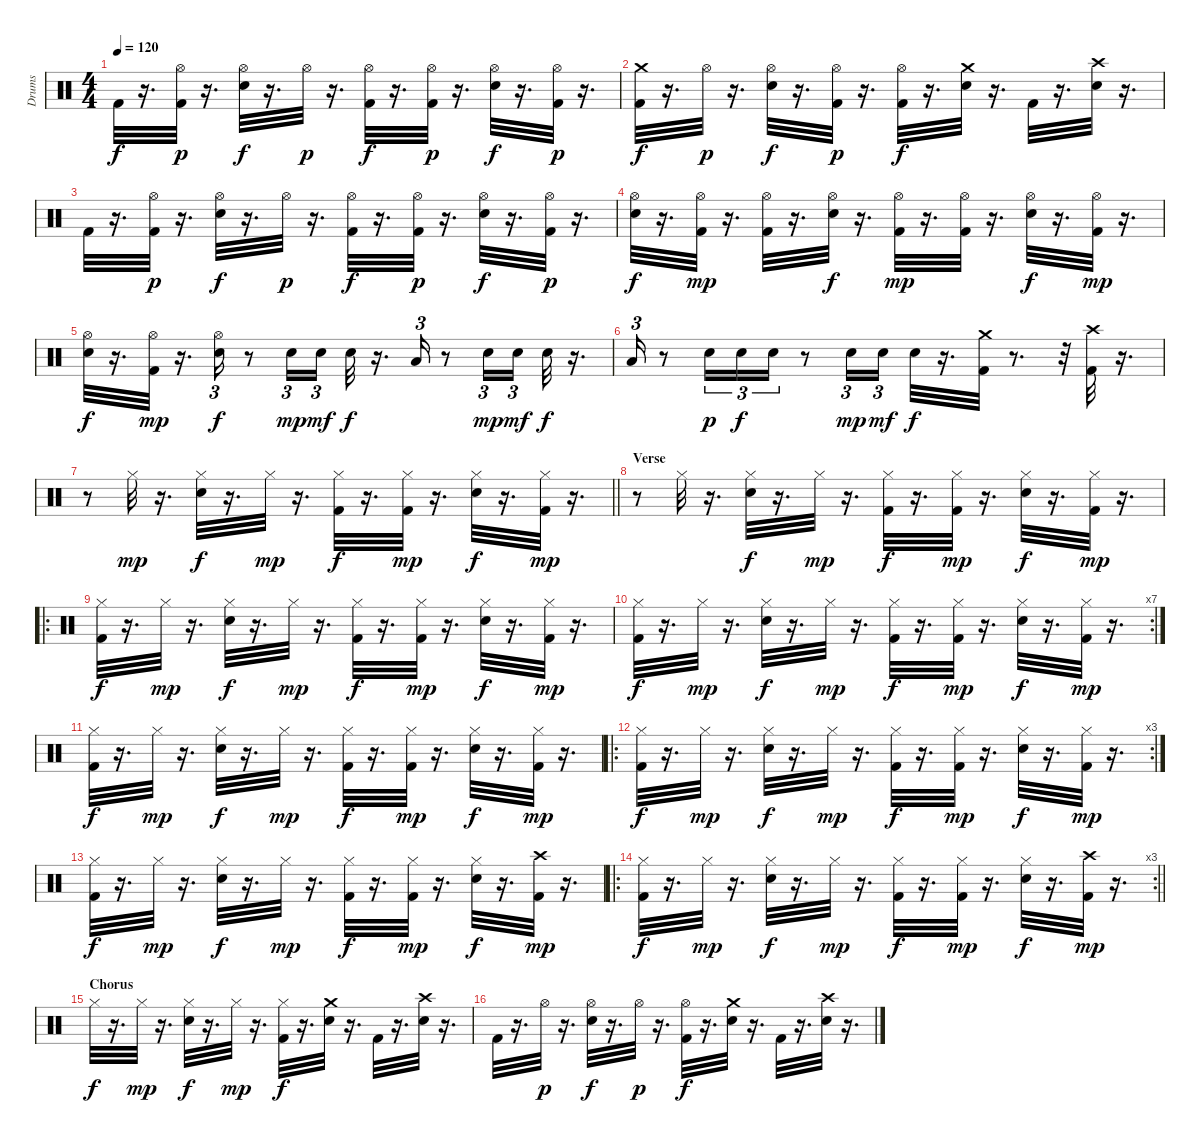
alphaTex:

\track ("Drums" "Drums") {instrument percussion}
\staff {score}
\articulation defaults
\ts (4 4)
\tempo 120
\clef neutral
\ks c "Kick (hit) 2".32{dy f}
r.16{d} ("Kick (hit) 2" "Hi-Hat (open)").32{dy p} r.16{d} ("Hi-Hat (open)" "Electric Snare (hit)").32{dy f} r.16{d} "Hi-Hat (open)".32{dy p} r.16{d} ("Hi-Hat (open)" "Kick (hit) 2").32{dy f} r.16{d} ("Hi-Hat (open)" "Kick (hit) 2").32{dy p} r.16{d} ("Hi-Hat (open)" "Electric Snare (hit)").32{dy f} r.16{d} ("Hi-Hat (open)" "Kick (hit) 2").32{dy p} r.16{d} |
("Crash medium (hit)" "Kick (hit) 2").32{dy f} r.16{d} "Hi-Hat (open)".32{dy p} r.16{d} ("Hi-Hat (open)" "Electric Snare (hit)").32{dy f} r.16{d} ("Kick (hit) 2" "Hi-Hat (open)").32{dy p} r.16{d} ("Hi-Hat (open)" "Kick (hit) 2").32{dy f} r.16{d} ("Crash medium (hit)" "Electric Snare (hit)").32 r.16{d} "Kick (hit) 2".32 r.16{d} ("Crash high (hit)" "Electric Snare (hit)").32 r.16{d} |
"Kick (hit) 2".32 r.16{d} ("Kick (hit) 2" "Hi-Hat (open)").32{dy p} r.16{d} ("Hi-Hat (open)" "Electric Snare (hit)").32{dy f} r.16{d} "Hi-Hat (open)".32{dy p} r.16{d} ("Hi-Hat (open)" "Kick (hit) 2").32{dy f} r.16{d} ("Hi-Hat (open)" "Kick (hit) 2").32{dy p} r.16{d} ("Hi-Hat (open)" "Electric Snare (hit)").32{dy f} r.16{d} ("Hi-Hat (open)" "Kick (hit) 2").32{dy p} r.16{d} |
("Hi-Hat (open)" "Electric Snare (hit)").32{dy f} r.16{d} ("Hi-Hat (open)" "Kick (hit) 2").32{dy mp} r.16{d} ("Hi-Hat (open)" "Kick (hit) 2").32 r.16{d} ("Hi-Hat (open)" "Electric Snare (hit)").32{dy f} r.16{d} ("Hi-Hat (open)" "Kick (hit) 2").32{dy mp} r.16{d} ("Hi-Hat (open)" "Kick (hit) 2").32 r.16{d} ("Hi-Hat (open)" "Electric Snare (hit)").32{dy f} r.16{d} ("Hi-Hat (open)" "Kick (hit) 2").32{dy mp} r.16{d} |
("Hi-Hat (open)" "Electric Snare (hit)").32{dy f} r.16{d} ("Hi-Hat (open)" "Kick (hit) 2").32{dy mp} r.16{d} ("Hi-Hat (open)" "Electric Snare (hit)").16{tu (3 2) dy f} r.8 "Electric Snare (hit)".16{tu (3 2) dy mp} "Electric Snare (hit)".16{tu (3 2) dy mf} "Electric Snare (hit)".32{dy f} r.16{d} "Low Tom (hit)".16{tu (3 2)} r.8 "Electric Snare (hit)".16{tu (3 2) dy mp} "Electric Snare (hit)".16{tu (3 2) dy mf beam splitsecondary} "Electric Snare (hit)".32{dy f} r.16{d} |
"Low Tom (hit)".16{tu (3 2)} r.8 "Electric Snare (hit)".16{tu (3 2) dy p} "Electric Snare (hit)".16{tu (3 2) dy f} "Electric Snare (hit)".16{tu (3 2)} r.8 "Electric Snare (hit)".16{tu (3 2) dy mp} "Electric Snare (hit)".16{tu (3 2) dy mf} "Electric Snare (hit)".32{dy f} r.16{d} ("Crash medium (hit)" "Kick (hit) 2").32 r.8{d} r.32 ("Crash high (hit)" "Kick (hit) 2").32 r.16{d} |
\barLineRight lightlight
r.8 "Hi-Hat (closed)".32{dy mp} r.16{d} ("Hi-Hat (closed)" "Electric Snare (hit)").32{dy f} r.16{d} "Hi-Hat (closed)".32{dy mp} r.16{d} ("Hi-Hat (closed)" "Kick (hit) 2").32{dy f} r.16{d} ("Hi-Hat (closed)" "Kick (hit) 2").32{dy mp} r.16{d} ("Hi-Hat (closed)" "Electric Snare (hit)").32{dy f} r.16{d} ("Hi-Hat (closed)" "Kick (hit) 2").32{dy mp} r.16{d} |
\section ("" "Verse")
r.8 "Hi-Hat (closed)".32 r.16{d} ("Hi-Hat (closed)" "Electric Snare (hit)").32{dy f} r.16{d} "Hi-Hat (closed)".32{dy mp} r.16{d} ("Hi-Hat (closed)" "Kick (hit) 2").32{dy f} r.16{d} ("Hi-Hat (closed)" "Kick (hit) 2").32{dy mp} r.16{d} ("Hi-Hat (closed)" "Electric Snare (hit)").32{dy f} r.16{d} ("Hi-Hat (closed)" "Kick (hit) 2").32{dy mp} r.16{d} |
\ro
("Hi-Hat (closed)" "Kick (hit) 2").32{dy f} r.16{d} "Hi-Hat (closed)".32{dy mp} r.16{d} ("Hi-Hat (closed)" "Electric Snare (hit)").32{dy f} r.16{d} "Hi-Hat (closed)".32{dy mp} r.16{d} ("Hi-Hat (closed)" "Kick (hit) 2").32{dy f} r.16{d} ("Hi-Hat (closed)" "Kick (hit) 2").32{dy mp} r.16{d} ("Hi-Hat (closed)" "Electric Snare (hit)").32{dy f} r.16{d} ("Hi-Hat (closed)" "Kick (hit) 2").32{dy mp} r.16{d} |
\rc 7
("Hi-Hat (closed)" "Kick (hit) 2").32{dy f} r.16{d} "Hi-Hat (closed)".32{dy mp} r.16{d} ("Hi-Hat (closed)" "Electric Snare (hit)").32{dy f} r.16{d} "Hi-Hat (closed)".32{dy mp} r.16{d} ("Hi-Hat (closed)" "Kick (hit) 2").32{dy f} r.16{d} ("Hi-Hat (closed)" "Kick (hit) 2").32{dy mp} r.16{d} ("Hi-Hat (closed)" "Electric Snare (hit)").32{dy f} r.16{d} ("Hi-Hat (closed)" "Kick (hit) 2").32{dy mp} r.16{d} |
("Hi-Hat (closed)" "Kick (hit) 2").32{dy f} r.16{d} "Hi-Hat (closed)".32{dy mp} r.16{d} ("Hi-Hat (closed)" "Electric Snare (hit)").32{dy f} r.16{d} "Hi-Hat (closed)".32{dy mp} r.16{d} ("Hi-Hat (closed)" "Kick (hit) 2").32{dy f} r.16{d} ("Hi-Hat (closed)" "Kick (hit) 2").32{dy mp} r.16{d} ("Hi-Hat (closed)" "Electric Snare (hit)").32{dy f} r.16{d} ("Hi-Hat (closed)" "Kick (hit) 2").32{dy mp} r.16{d} |
\ro
\rc 3
("Hi-Hat (closed)" "Kick (hit) 2").32{dy f} r.16{d} "Hi-Hat (closed)".32{dy mp} r.16{d} ("Hi-Hat (closed)" "Electric Snare (hit)").32{dy f} r.16{d} "Hi-Hat (closed)".32{dy mp} r.16{d} ("Hi-Hat (closed)" "Kick (hit) 2").32{dy f} r.16{d} ("Hi-Hat (closed)" "Kick (hit) 2").32{dy mp} r.16{d} ("Hi-Hat (closed)" "Electric Snare (hit)").32{dy f} r.16{d} ("Hi-Hat (closed)" "Kick (hit) 2").32{dy mp} r.16{d} |
("Hi-Hat (closed)" "Kick (hit) 2").32{dy f} r.16{d} "Hi-Hat (closed)".32{dy mp} r.16{d} ("Hi-Hat (closed)" "Electric Snare (hit)").32{dy f} r.16{d} "Hi-Hat (closed)".32{dy mp} r.16{d} ("Hi-Hat (closed)" "Kick (hit) 2").32{dy f} r.16{d} ("Hi-Hat (closed)" "Kick (hit) 2").32{dy mp} r.16{d} ("Hi-Hat (closed)" "Electric Snare (hit)").32{dy f} r.16{d} ("Crash high (hit)" "Kick (hit) 2").32{dy mp} r.16{d} |
\ro
\rc 3
\barLineRight lightlight
("Hi-Hat (closed)" "Kick (hit) 2").32{dy f} r.16{d} "Hi-Hat (closed)".32{dy mp} r.16{d} ("Hi-Hat (closed)" "Electric Snare (hit)").32{dy f} r.16{d} "Hi-Hat (closed)".32{dy mp} r.16{d} ("Hi-Hat (closed)" "Kick (hit) 2").32{dy f} r.16{d} ("Hi-Hat (closed)" "Kick (hit) 2").32{dy mp} r.16{d} ("Hi-Hat (closed)" "Electric Snare (hit)").32{dy f} r.16{d} ("Crash high (hit)" "Kick (hit) 2").32{dy mp} r.16{d} |
\section ("" "Chorus")
"Hi-Hat (closed)".32{dy f} r.16{d} "Hi-Hat (closed)".32{dy mp} r.16{d} ("Hi-Hat (closed)" "Electric Snare (hit)").32{dy f} r.16{d} "Hi-Hat (closed)".32{dy mp} r.16{d} ("Hi-Hat (closed)" "Kick (hit) 2").32{dy f} r.16{d} ("Crash medium (hit)" "Electric Snare (hit)").32 r.16{d} "Kick (hit) 2".32 r.16{d} ("Crash high (hit)" "Electric Snare (hit)").32 r.16{d} |
"Kick (hit) 2".32 r.16{d} "Hi-Hat (open)".32{dy p} r.16{d} ("Hi-Hat (open)" "Electric Snare (hit)").32{dy f} r.16{d} "Hi-Hat (open)".32{dy p} r.16{d} ("Hi-Hat (open)" "Kick (hit) 2").32{dy f} r.16{d} ("Crash medium (hit)" "Electric Snare (hit)").32 r.16{d} "Kick (hit) 2".32 r.16{d} ("Crash high (hit)" "Electric Snare (hit)").32 r.16{d}
